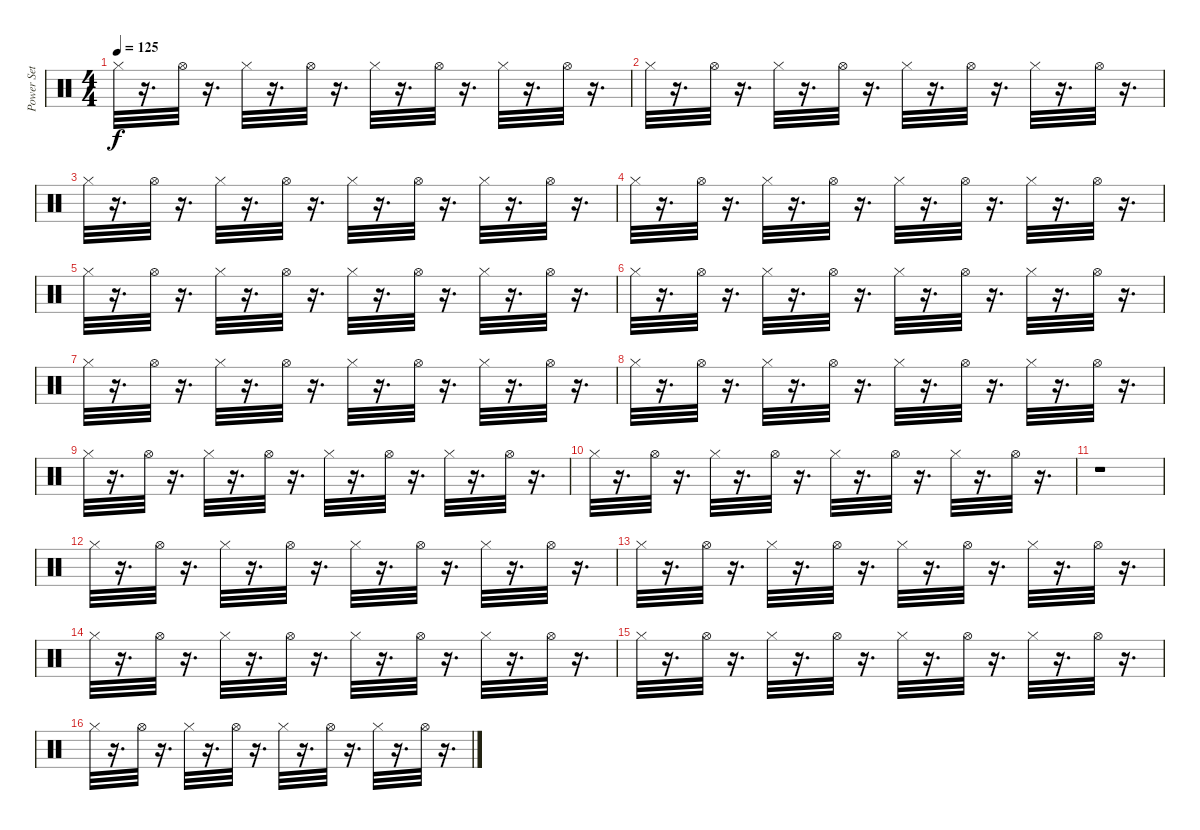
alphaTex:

\track ("Power Set" "Power Set") {instrument percussion}
\staff {score}
\articulation defaults
\ts (4 4)
\tempo 125
\clef neutral
\ks c "Hi-Hat (closed)".32{dy f}
r.16{d} "Hi-Hat (open)".32 r.16{d} "Hi-Hat (closed)".32 r.16{d} "Hi-Hat (open)".32 r.16{d} "Hi-Hat (closed)".32 r.16{d} "Hi-Hat (open)".32 r.16{d} "Hi-Hat (closed)".32 r.16{d} "Hi-Hat (open)".32 r.16{d} |
"Hi-Hat (closed)".32 r.16{d} "Hi-Hat (open)".32 r.16{d} "Hi-Hat (closed)".32 r.16{d} "Hi-Hat (open)".32 r.16{d} "Hi-Hat (closed)".32 r.16{d} "Hi-Hat (open)".32 r.16{d} "Hi-Hat (closed)".32 r.16{d} "Hi-Hat (open)".32 r.16{d} |
"Hi-Hat (closed)".32 r.16{d} "Hi-Hat (open)".32 r.16{d} "Hi-Hat (closed)".32 r.16{d} "Hi-Hat (open)".32 r.16{d} "Hi-Hat (closed)".32 r.16{d} "Hi-Hat (open)".32 r.16{d} "Hi-Hat (closed)".32 r.16{d} "Hi-Hat (open)".32 r.16{d} |
"Hi-Hat (closed)".32 r.16{d} "Hi-Hat (open)".32 r.16{d} "Hi-Hat (closed)".32 r.16{d} "Hi-Hat (open)".32 r.16{d} "Hi-Hat (closed)".32 r.16{d} "Hi-Hat (open)".32 r.16{d} "Hi-Hat (closed)".32 r.16{d} "Hi-Hat (open)".32 r.16{d} |
"Hi-Hat (closed)".32 r.16{d} "Hi-Hat (open)".32 r.16{d} "Hi-Hat (closed)".32 r.16{d} "Hi-Hat (open)".32 r.16{d} "Hi-Hat (closed)".32 r.16{d} "Hi-Hat (open)".32 r.16{d} "Hi-Hat (closed)".32 r.16{d} "Hi-Hat (open)".32 r.16{d} |
"Hi-Hat (closed)".32 r.16{d} "Hi-Hat (open)".32 r.16{d} "Hi-Hat (closed)".32 r.16{d} "Hi-Hat (open)".32 r.16{d} "Hi-Hat (closed)".32 r.16{d} "Hi-Hat (open)".32 r.16{d} "Hi-Hat (closed)".32 r.16{d} "Hi-Hat (open)".32 r.16{d} |
"Hi-Hat (closed)".32 r.16{d} "Hi-Hat (open)".32 r.16{d} "Hi-Hat (closed)".32 r.16{d} "Hi-Hat (open)".32 r.16{d} "Hi-Hat (closed)".32 r.16{d} "Hi-Hat (open)".32 r.16{d} "Hi-Hat (closed)".32 r.16{d} "Hi-Hat (open)".32 r.16{d} |
"Hi-Hat (closed)".32 r.16{d} "Hi-Hat (open)".32 r.16{d} "Hi-Hat (closed)".32 r.16{d} "Hi-Hat (open)".32 r.16{d} "Hi-Hat (closed)".32 r.16{d} "Hi-Hat (open)".32 r.16{d} "Hi-Hat (closed)".32 r.16{d} "Hi-Hat (open)".32 r.16{d} |
"Hi-Hat (closed)".32 r.16{d} "Hi-Hat (open)".32 r.16{d} "Hi-Hat (closed)".32 r.16{d} "Hi-Hat (open)".32 r.16{d} "Hi-Hat (closed)".32 r.16{d} "Hi-Hat (open)".32 r.16{d} "Hi-Hat (closed)".32 r.16{d} "Hi-Hat (open)".32 r.16{d} |
"Hi-Hat (closed)".32 r.16{d} "Hi-Hat (open)".32 r.16{d} "Hi-Hat (closed)".32 r.16{d} "Hi-Hat (open)".32 r.16{d} "Hi-Hat (closed)".32 r.16{d} "Hi-Hat (open)".32 r.16{d} "Hi-Hat (closed)".32 r.16{d} "Hi-Hat (open)".32 r.16{d} |
r.1 |
"Hi-Hat (closed)".32 r.16{d} "Hi-Hat (open)".32 r.16{d} "Hi-Hat (closed)".32 r.16{d} "Hi-Hat (open)".32 r.16{d} "Hi-Hat (closed)".32 r.16{d} "Hi-Hat (open)".32 r.16{d} "Hi-Hat (closed)".32 r.16{d} "Hi-Hat (open)".32 r.16{d} |
"Hi-Hat (closed)".32 r.16{d} "Hi-Hat (open)".32 r.16{d} "Hi-Hat (closed)".32 r.16{d} "Hi-Hat (open)".32 r.16{d} "Hi-Hat (closed)".32 r.16{d} "Hi-Hat (open)".32 r.16{d} "Hi-Hat (closed)".32 r.16{d} "Hi-Hat (open)".32 r.16{d} |
"Hi-Hat (closed)".32 r.16{d} "Hi-Hat (open)".32 r.16{d} "Hi-Hat (closed)".32 r.16{d} "Hi-Hat (open)".32 r.16{d} "Hi-Hat (closed)".32 r.16{d} "Hi-Hat (open)".32 r.16{d} "Hi-Hat (closed)".32 r.16{d} "Hi-Hat (open)".32 r.16{d} |
"Hi-Hat (closed)".32 r.16{d} "Hi-Hat (open)".32 r.16{d} "Hi-Hat (closed)".32 r.16{d} "Hi-Hat (open)".32 r.16{d} "Hi-Hat (closed)".32 r.16{d} "Hi-Hat (open)".32 r.16{d} "Hi-Hat (closed)".32 r.16{d} "Hi-Hat (open)".32 r.16{d} |
"Hi-Hat (closed)".32 r.16{d} "Hi-Hat (open)".32 r.16{d} "Hi-Hat (closed)".32 r.16{d} "Hi-Hat (open)".32 r.16{d} "Hi-Hat (closed)".32 r.16{d} "Hi-Hat (open)".32 r.16{d} "Hi-Hat (closed)".32 r.16{d} "Hi-Hat (open)".32 r.16{d}
